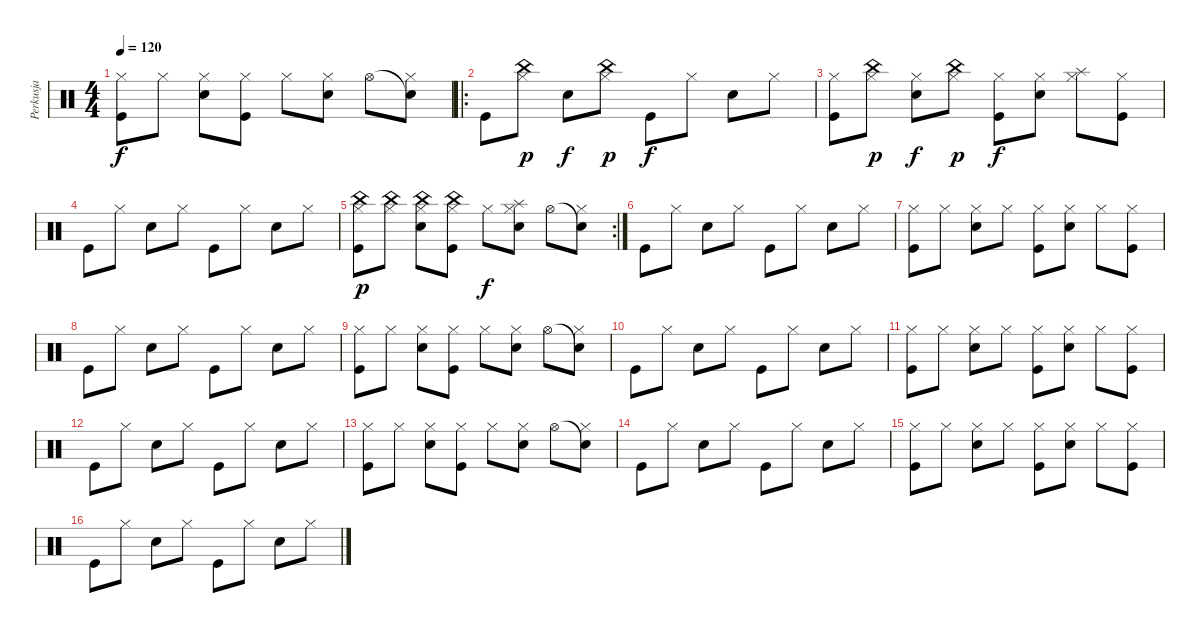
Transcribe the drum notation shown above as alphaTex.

\track ("Perkusja" "Perkusja") {instrument percussion}
\staff {score}
\articulation defaults
\ts (4 4)
\tempo 120
\clef neutral
\ks c
("Hi-Hat (closed)" "Kick (hit)").8{dy f} "Hi-Hat (closed)".8 ("Hi-Hat (closed)" "Snare (hit) 2").8 ("Hi-Hat (closed)" "Kick (hit)").8 "Hi-Hat (closed)".8 ("Hi-Hat (closed)" "Snare (hit) 2").8 "Hi-Hat (open)".8 ("Snare (hit)"{t} "Hi-Hat (closed)").8 |
\ro "Kick (hit)".8
("Hi-Hat (closed)" "China (hit)").8{dy p} "Snare (hit) 2".8{dy f} ("Hi-Hat (closed)" "China (hit)").8{dy p} "Kick (hit)".8{dy f} "Hi-Hat (closed)".8 "Snare (hit) 2".8 "Hi-Hat (closed)".8 |
("Hi-Hat (closed)" "Kick (hit)").8 ("Hi-Hat (closed)" "China (hit)").8{dy p} ("Hi-Hat (closed)" "Snare (hit) 2").8{dy f} ("Hi-Hat (closed)" "China (hit)").8{dy p} ("Hi-Hat (closed)" "Kick (hit)").8{dy f} ("Hi-Hat (closed)" "Snare (hit) 2").8 ("Hi-Hat (closed)" "Splash (hit)").8 ("Hi-Hat (closed)" "Kick (hit)").8 |
"Kick (hit)".8 "Hi-Hat (closed)".8 "Snare (hit) 2".8 "Hi-Hat (closed)".8 "Kick (hit)".8 "Hi-Hat (closed)".8 "Snare (hit) 2".8 "Hi-Hat (closed)".8 |
\rc 2
("China (hit)" "Hi-Hat (closed)" "Kick (hit)").8{dy p} ("China (hit)" "Hi-Hat (closed)").8 ("China (hit)" "Hi-Hat (closed)" "Snare (hit) 2").8 ("China (hit)" "Hi-Hat (closed)" "Kick (hit)").8 "Hi-Hat (closed)".8{dy f} ("Hi-Hat (closed)" "Snare (hit) 2" "Splash (hit)").8 "Hi-Hat (open)".8 ("Snare (hit)"{t} "Hi-Hat (closed)").8 |
"Kick (hit)".8 "Hi-Hat (closed)".8 "Snare (hit) 2".8 "Hi-Hat (closed)".8 "Kick (hit)".8 "Hi-Hat (closed)".8 "Snare (hit) 2".8 "Hi-Hat (closed)".8 |
("Hi-Hat (closed)" "Kick (hit)").8 "Hi-Hat (closed)".8 ("Hi-Hat (closed)" "Snare (hit) 2").8 "Hi-Hat (closed)".8 ("Hi-Hat (closed)" "Kick (hit)").8 ("Hi-Hat (closed)" "Snare (hit) 2").8 "Hi-Hat (closed)".8 ("Hi-Hat (closed)" "Kick (hit)").8 |
"Kick (hit)".8 "Hi-Hat (closed)".8 "Snare (hit) 2".8 "Hi-Hat (closed)".8 "Kick (hit)".8 "Hi-Hat (closed)".8 "Snare (hit) 2".8 "Hi-Hat (closed)".8 |
("Hi-Hat (closed)" "Kick (hit)").8 "Hi-Hat (closed)".8 ("Hi-Hat (closed)" "Snare (hit) 2").8 ("Hi-Hat (closed)" "Kick (hit)").8 "Hi-Hat (closed)".8 ("Hi-Hat (closed)" "Snare (hit) 2").8 "Hi-Hat (open)".8 ("Snare (hit)"{t} "Hi-Hat (closed)").8 |
"Kick (hit)".8 "Hi-Hat (closed)".8 "Snare (hit) 2".8 "Hi-Hat (closed)".8 "Kick (hit)".8 "Hi-Hat (closed)".8 "Snare (hit) 2".8 "Hi-Hat (closed)".8 |
("Hi-Hat (closed)" "Kick (hit)").8 "Hi-Hat (closed)".8 ("Hi-Hat (closed)" "Snare (hit) 2").8 "Hi-Hat (closed)".8 ("Hi-Hat (closed)" "Kick (hit)").8 ("Hi-Hat (closed)" "Snare (hit) 2").8 "Hi-Hat (closed)".8 ("Hi-Hat (closed)" "Kick (hit)").8 |
"Kick (hit)".8 "Hi-Hat (closed)".8 "Snare (hit) 2".8 "Hi-Hat (closed)".8 "Kick (hit)".8 "Hi-Hat (closed)".8 "Snare (hit) 2".8 "Hi-Hat (closed)".8 |
("Hi-Hat (closed)" "Kick (hit)").8 "Hi-Hat (closed)".8 ("Hi-Hat (closed)" "Snare (hit) 2").8 ("Hi-Hat (closed)" "Kick (hit)").8 "Hi-Hat (closed)".8 ("Hi-Hat (closed)" "Snare (hit) 2").8 "Hi-Hat (open)".8 ("Snare (hit)"{t} "Hi-Hat (closed)").8 |
"Kick (hit)".8 "Hi-Hat (closed)".8 "Snare (hit) 2".8 "Hi-Hat (closed)".8 "Kick (hit)".8 "Hi-Hat (closed)".8 "Snare (hit) 2".8 "Hi-Hat (closed)".8 |
("Hi-Hat (closed)" "Kick (hit)").8 "Hi-Hat (closed)".8 ("Hi-Hat (closed)" "Snare (hit) 2").8 "Hi-Hat (closed)".8 ("Hi-Hat (closed)" "Kick (hit)").8 ("Hi-Hat (closed)" "Snare (hit) 2").8 "Hi-Hat (closed)".8 ("Hi-Hat (closed)" "Kick (hit)").8 |
"Kick (hit)".8 "Hi-Hat (closed)".8 "Snare (hit) 2".8 "Hi-Hat (closed)".8 "Kick (hit)".8 "Hi-Hat (closed)".8 "Snare (hit) 2".8 "Hi-Hat (closed)".8
